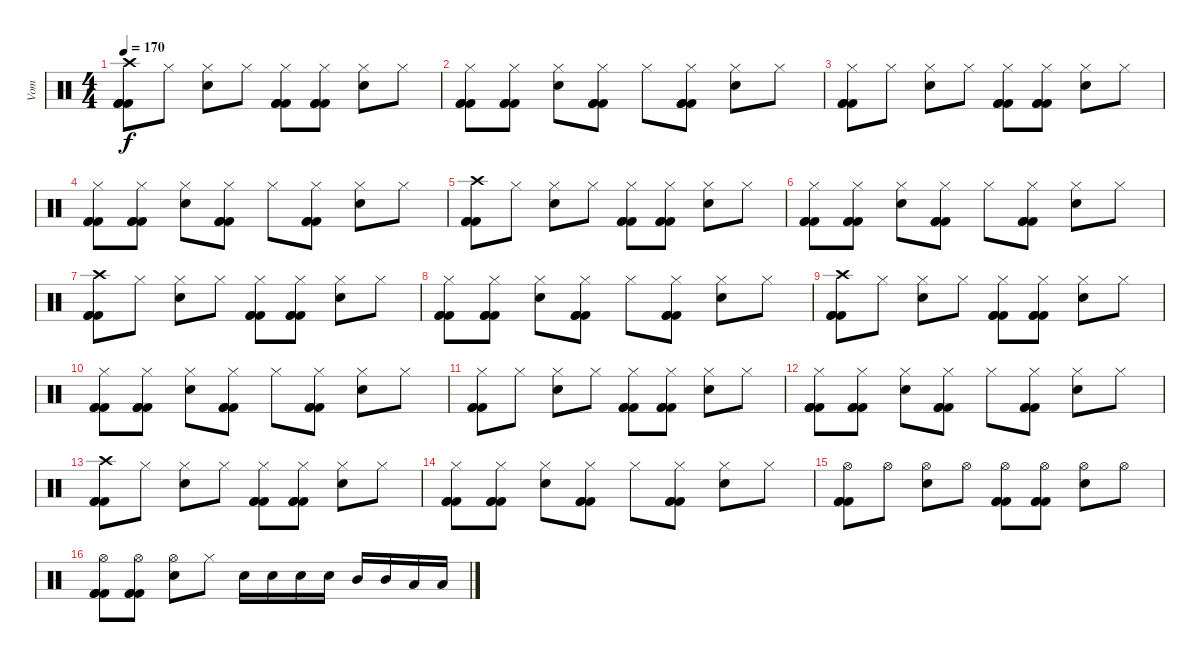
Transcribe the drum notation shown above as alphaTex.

\track ("Vom" "Vom") {instrument percussion}
\staff {score}
\articulation defaults
\ts (4 4)
\tempo 170
\clef neutral
\ks c
("Crash high (hit)" "Kick (hit) 2" "Kick (hit) 2" "Kick (hit) 2").8{dy f} "Hi-Hat (closed)".8 ("Hi-Hat (closed)" "Snare (hit) 2").8 "Hi-Hat (closed)".8 ("Hi-Hat (closed)" "Kick (hit) 2" "Kick (hit) 2" "Kick (hit) 2").8 ("Hi-Hat (closed)" "Kick (hit) 2" "Kick (hit) 2" "Kick (hit) 2").8 ("Hi-Hat (closed)" "Snare (hit) 2").8 "Hi-Hat (closed)".8 |
("Hi-Hat (closed)" "Kick (hit) 2" "Kick (hit) 2" "Kick (hit) 2").8 ("Hi-Hat (closed)" "Kick (hit) 2" "Kick (hit) 2" "Kick (hit) 2").8 ("Hi-Hat (closed)" "Snare (hit) 2").8 ("Hi-Hat (closed)" "Kick (hit) 2" "Kick (hit) 2" "Kick (hit) 2").8 "Hi-Hat (closed)".8 ("Hi-Hat (closed)" "Kick (hit) 2" "Kick (hit) 2" "Kick (hit) 2").8 ("Hi-Hat (closed)" "Snare (hit) 2").8 "Hi-Hat (closed)".8 |
("Hi-Hat (closed)" "Kick (hit) 2" "Kick (hit) 2" "Kick (hit) 2").8 "Hi-Hat (closed)".8 ("Hi-Hat (closed)" "Snare (hit) 2").8 "Hi-Hat (closed)".8 ("Hi-Hat (closed)" "Kick (hit) 2" "Kick (hit) 2" "Kick (hit) 2").8 ("Hi-Hat (closed)" "Kick (hit) 2" "Kick (hit) 2" "Kick (hit) 2").8 ("Hi-Hat (closed)" "Snare (hit) 2").8 "Hi-Hat (closed)".8 |
("Hi-Hat (closed)" "Kick (hit) 2" "Kick (hit) 2" "Kick (hit) 2").8 ("Hi-Hat (closed)" "Kick (hit) 2" "Kick (hit) 2" "Kick (hit) 2").8 ("Hi-Hat (closed)" "Snare (hit) 2").8 ("Hi-Hat (closed)" "Kick (hit) 2" "Kick (hit) 2" "Kick (hit) 2").8 "Hi-Hat (closed)".8 ("Hi-Hat (closed)" "Kick (hit) 2" "Kick (hit) 2" "Kick (hit) 2").8 ("Hi-Hat (closed)" "Snare (hit) 2").8 "Hi-Hat (closed)".8 |
("Crash high (hit)" "Kick (hit) 2" "Kick (hit) 2" "Kick (hit) 2").8 "Hi-Hat (closed)".8 ("Hi-Hat (closed)" "Snare (hit) 2").8 "Hi-Hat (closed)".8 ("Hi-Hat (closed)" "Kick (hit) 2" "Kick (hit) 2" "Kick (hit) 2").8 ("Hi-Hat (closed)" "Kick (hit) 2" "Kick (hit) 2" "Kick (hit) 2").8 ("Hi-Hat (closed)" "Snare (hit) 2").8 "Hi-Hat (closed)".8 |
("Hi-Hat (closed)" "Kick (hit) 2" "Kick (hit) 2" "Kick (hit) 2").8 ("Hi-Hat (closed)" "Kick (hit) 2" "Kick (hit) 2" "Kick (hit) 2").8 ("Hi-Hat (closed)" "Snare (hit) 2").8 ("Hi-Hat (closed)" "Kick (hit) 2" "Kick (hit) 2" "Kick (hit) 2").8 "Hi-Hat (closed)".8 ("Hi-Hat (closed)" "Kick (hit) 2" "Kick (hit) 2" "Kick (hit) 2").8 ("Hi-Hat (closed)" "Snare (hit) 2").8 "Hi-Hat (closed)".8 |
("Crash high (hit)" "Kick (hit) 2" "Kick (hit) 2" "Kick (hit) 2").8 "Hi-Hat (closed)".8 ("Hi-Hat (closed)" "Snare (hit) 2").8 "Hi-Hat (closed)".8 ("Hi-Hat (closed)" "Kick (hit) 2" "Kick (hit) 2" "Kick (hit) 2").8 ("Hi-Hat (closed)" "Kick (hit) 2" "Kick (hit) 2" "Kick (hit) 2").8 ("Hi-Hat (closed)" "Snare (hit) 2").8 "Hi-Hat (closed)".8 |
("Hi-Hat (closed)" "Kick (hit) 2" "Kick (hit) 2" "Kick (hit) 2").8 ("Hi-Hat (closed)" "Kick (hit) 2" "Kick (hit) 2" "Kick (hit) 2").8 ("Hi-Hat (closed)" "Snare (hit) 2").8 ("Hi-Hat (closed)" "Kick (hit) 2" "Kick (hit) 2" "Kick (hit) 2").8 "Hi-Hat (closed)".8 ("Hi-Hat (closed)" "Kick (hit) 2" "Kick (hit) 2" "Kick (hit) 2").8 ("Hi-Hat (closed)" "Snare (hit) 2").8 "Hi-Hat (closed)".8 |
("Crash high (hit)" "Kick (hit) 2" "Kick (hit) 2" "Kick (hit) 2").8 "Hi-Hat (closed)".8 ("Hi-Hat (closed)" "Snare (hit) 2").8 "Hi-Hat (closed)".8 ("Hi-Hat (closed)" "Kick (hit) 2" "Kick (hit) 2" "Kick (hit) 2").8 ("Hi-Hat (closed)" "Kick (hit) 2" "Kick (hit) 2" "Kick (hit) 2").8 ("Hi-Hat (closed)" "Snare (hit) 2").8 "Hi-Hat (closed)".8 |
("Hi-Hat (closed)" "Kick (hit) 2" "Kick (hit) 2" "Kick (hit) 2").8 ("Hi-Hat (closed)" "Kick (hit) 2" "Kick (hit) 2" "Kick (hit) 2").8 ("Hi-Hat (closed)" "Snare (hit) 2").8 ("Hi-Hat (closed)" "Kick (hit) 2" "Kick (hit) 2" "Kick (hit) 2").8 "Hi-Hat (closed)".8 ("Hi-Hat (closed)" "Kick (hit) 2" "Kick (hit) 2" "Kick (hit) 2").8 ("Hi-Hat (closed)" "Snare (hit) 2").8 "Hi-Hat (closed)".8 |
("Hi-Hat (closed)" "Kick (hit) 2" "Kick (hit) 2" "Kick (hit) 2").8 "Hi-Hat (closed)".8 ("Hi-Hat (closed)" "Snare (hit) 2").8 "Hi-Hat (closed)".8 ("Hi-Hat (closed)" "Kick (hit) 2" "Kick (hit) 2" "Kick (hit) 2").8 ("Hi-Hat (closed)" "Kick (hit) 2" "Kick (hit) 2" "Kick (hit) 2").8 ("Hi-Hat (closed)" "Snare (hit) 2").8 "Hi-Hat (closed)".8 |
("Hi-Hat (closed)" "Kick (hit) 2" "Kick (hit) 2" "Kick (hit) 2").8 ("Hi-Hat (closed)" "Kick (hit) 2" "Kick (hit) 2" "Kick (hit) 2").8 ("Hi-Hat (closed)" "Snare (hit) 2").8 ("Hi-Hat (closed)" "Kick (hit) 2" "Kick (hit) 2" "Kick (hit) 2").8 "Hi-Hat (closed)".8 ("Hi-Hat (closed)" "Kick (hit) 2" "Kick (hit) 2" "Kick (hit) 2").8 ("Hi-Hat (closed)" "Snare (hit) 2").8 "Hi-Hat (closed)".8 |
("Crash high (hit)" "Kick (hit) 2" "Kick (hit) 2" "Kick (hit) 2").8 "Hi-Hat (closed)".8 ("Hi-Hat (closed)" "Snare (hit) 2").8 "Hi-Hat (closed)".8 ("Hi-Hat (closed)" "Kick (hit) 2" "Kick (hit) 2" "Kick (hit) 2").8 ("Hi-Hat (closed)" "Kick (hit) 2" "Kick (hit) 2" "Kick (hit) 2").8 ("Hi-Hat (closed)" "Snare (hit) 2").8 "Hi-Hat (closed)".8 |
("Hi-Hat (closed)" "Kick (hit) 2" "Kick (hit) 2" "Kick (hit) 2").8 ("Hi-Hat (closed)" "Kick (hit) 2" "Kick (hit) 2" "Kick (hit) 2").8 ("Hi-Hat (closed)" "Snare (hit) 2").8 ("Hi-Hat (closed)" "Kick (hit) 2" "Kick (hit) 2" "Kick (hit) 2").8 "Hi-Hat (closed)".8 ("Hi-Hat (closed)" "Kick (hit) 2" "Kick (hit) 2" "Kick (hit) 2").8 ("Hi-Hat (closed)" "Snare (hit) 2").8 "Hi-Hat (closed)".8 |
("Hi-Hat (open)" "Kick (hit) 2" "Kick (hit) 2" "Kick (hit) 2").8 "Hi-Hat (open)".8 ("Hi-Hat (open)" "Snare (hit) 2").8 "Hi-Hat (open)".8 ("Hi-Hat (open)" "Kick (hit) 2" "Kick (hit) 2" "Kick (hit) 2").8 ("Hi-Hat (open)" "Kick (hit) 2" "Kick (hit) 2" "Kick (hit) 2").8 ("Hi-Hat (open)" "Snare (hit) 2").8 "Hi-Hat (open)".8 |
("Hi-Hat (open)" "Kick (hit) 2" "Kick (hit) 2" "Kick (hit) 2").8 ("Hi-Hat (open)" "Kick (hit) 2" "Kick (hit) 2" "Kick (hit) 2").8 ("Hi-Hat (open)" "Snare (hit) 2").8 "Hi-Hat (closed)".8 "Snare (hit) 2".16 "Snare (hit) 2".16 "Snare (hit) 2".16 "Snare (hit) 2".16 "Mid Tom (hit)".16 "Mid Tom (hit)".16 "Low Tom (hit)".16 "Low Tom (hit)".16
